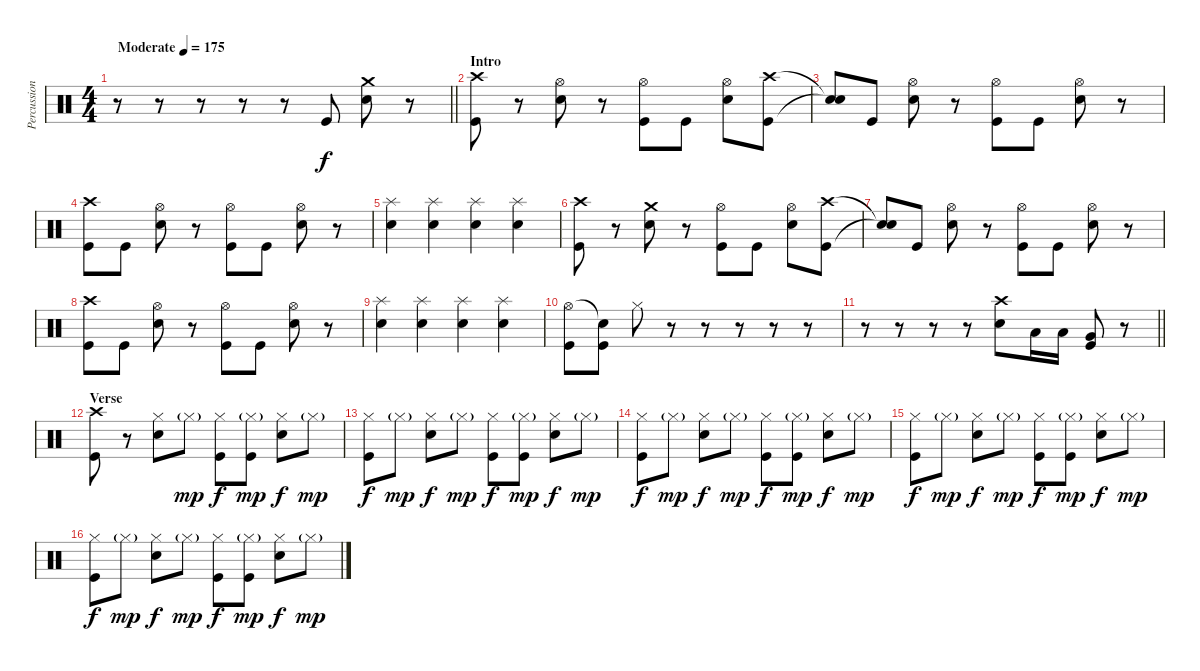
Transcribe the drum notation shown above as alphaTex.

\track ("Percussion" "Percussion") {instrument percussion}
\staff {score}
\articulation defaults
\ts (4 4)
\tempo (175 "Moderate")
\clef neutral
\barLineRight lightlight
\ks c
r.8{dy f} r.8 r.8 r.8 r.8 "Kick (hit)".8 ("Crash medium (hit)" "Snare (hit) 2").8 r.8 |
\section ("" "Intro")
("Crash high (hit)" "Kick (hit)").8 r.8 ("Hi-Hat (open)" "Snare (hit) 2").8 r.8 ("Hi-Hat (open)" "Kick (hit)").8 "Kick (hit)".8 ("Hi-Hat (open)" "Snare (hit) 2").8 ("Crash high (hit)" "Kick (hit)").8 |
("Snare (hit)"{t} "Snare (hit)"{t}).8 "Kick (hit)".8 ("Hi-Hat (open)" "Snare (hit) 2").8 r.8 ("Hi-Hat (open)" "Kick (hit)").8 "Kick (hit)".8 ("Hi-Hat (open)" "Snare (hit) 2").8 r.8 |
("Crash high (hit)" "Kick (hit)").8 "Kick (hit)".8 ("Hi-Hat (open)" "Snare (hit) 2").8 r.8 ("Hi-Hat (open)" "Kick (hit)").8 "Kick (hit)".8 ("Hi-Hat (open)" "Snare (hit) 2").8 r.8 |
("Splash (hit)" "Snare (hit) 2").4 ("Splash (hit)" "Snare (hit) 2").4 ("Splash (hit)" "Snare (hit) 2").4 ("Splash (hit)" "Snare (hit) 2").4 |
("Crash high (hit)" "Kick (hit)").8 r.8 ("Crash medium (hit)" "Snare (hit) 2").8 r.8 ("Hi-Hat (open)" "Kick (hit)").8 "Kick (hit)".8 ("Hi-Hat (open)" "Snare (hit) 2").8 ("Crash high (hit)" "Kick (hit)").8 |
("Snare (hit)"{t} "Snare (hit)"{t}).8 "Kick (hit)".8 ("Hi-Hat (open)" "Snare (hit) 2").8 r.8 ("Hi-Hat (open)" "Kick (hit)").8 "Kick (hit)".8 ("Hi-Hat (open)" "Snare (hit) 2").8 r.8 |
("Crash high (hit)" "Kick (hit)").8 "Kick (hit)".8 ("Hi-Hat (open)" "Snare (hit) 2").8 r.8 ("Hi-Hat (open)" "Kick (hit)").8 "Kick (hit)".8 ("Hi-Hat (open)" "Snare (hit) 2").8 r.8 |
("Splash (hit)" "Snare (hit) 2").4 ("Splash (hit)" "Snare (hit) 2").4 ("Splash (hit)" "Snare (hit) 2").4 ("Splash (hit)" "Snare (hit) 2").4 |
("Hi-Hat (open)" "Kick (hit)").8 ("Snare (hit)"{t} "Kick (hit)").8 "Hi-Hat (closed)".8 r.8 r.8 r.8 r.8 r.8 |
\barLineRight lightlight
r.8 r.8 r.8 r.8 ("Crash high (hit)" "Snare (hit) 2").8 "Low Tom (hit)".16 "Low Tom (hit)".16 ("Very Low Tom (hit)" "Kick (hit)").8 r.8 |
\section ("" "Verse")
("Crash high (hit)" "Kick (hit)").8 r.8 ("Hi-Hat (closed)" "Snare (hit) 2").8 "Hi-Hat (closed)"{g}.8{dy mp} ("Hi-Hat (closed)" "Kick (hit)").8{dy f} ("Hi-Hat (closed)"{g} "Kick (hit)").8{dy mp} ("Hi-Hat (closed)" "Snare (hit) 2").8{dy f} "Hi-Hat (closed)"{g}.8{dy mp} |
("Hi-Hat (closed)" "Kick (hit)").8{dy f} "Hi-Hat (closed)"{g}.8{dy mp} ("Hi-Hat (closed)" "Snare (hit) 2").8{dy f} "Hi-Hat (closed)"{g}.8{dy mp} ("Hi-Hat (closed)" "Kick (hit)").8{dy f} ("Hi-Hat (closed)"{g} "Kick (hit)").8{dy mp} ("Hi-Hat (closed)" "Snare (hit) 2").8{dy f} "Hi-Hat (closed)"{g}.8{dy mp} |
("Hi-Hat (closed)" "Kick (hit)").8{dy f} "Hi-Hat (closed)"{g}.8{dy mp} ("Hi-Hat (closed)" "Snare (hit) 2").8{dy f} "Hi-Hat (closed)"{g}.8{dy mp} ("Hi-Hat (closed)" "Kick (hit)").8{dy f} ("Hi-Hat (closed)"{g} "Kick (hit)").8{dy mp} ("Hi-Hat (closed)" "Snare (hit) 2").8{dy f} "Hi-Hat (closed)"{g}.8{dy mp} |
("Hi-Hat (closed)" "Kick (hit)").8{dy f} "Hi-Hat (closed)"{g}.8{dy mp} ("Hi-Hat (closed)" "Snare (hit) 2").8{dy f} "Hi-Hat (closed)"{g}.8{dy mp} ("Hi-Hat (closed)" "Kick (hit)").8{dy f} ("Hi-Hat (closed)"{g} "Kick (hit)").8{dy mp} ("Hi-Hat (closed)" "Snare (hit) 2").8{dy f} "Hi-Hat (closed)"{g}.8{dy mp} |
("Hi-Hat (closed)" "Kick (hit)").8{dy f} "Hi-Hat (closed)"{g}.8{dy mp} ("Hi-Hat (closed)" "Snare (hit) 2").8{dy f} "Hi-Hat (closed)"{g}.8{dy mp} ("Hi-Hat (closed)" "Kick (hit)").8{dy f} ("Hi-Hat (closed)"{g} "Kick (hit)").8{dy mp} ("Hi-Hat (closed)" "Snare (hit) 2").8{dy f} "Hi-Hat (closed)"{g}.8{dy mp}
